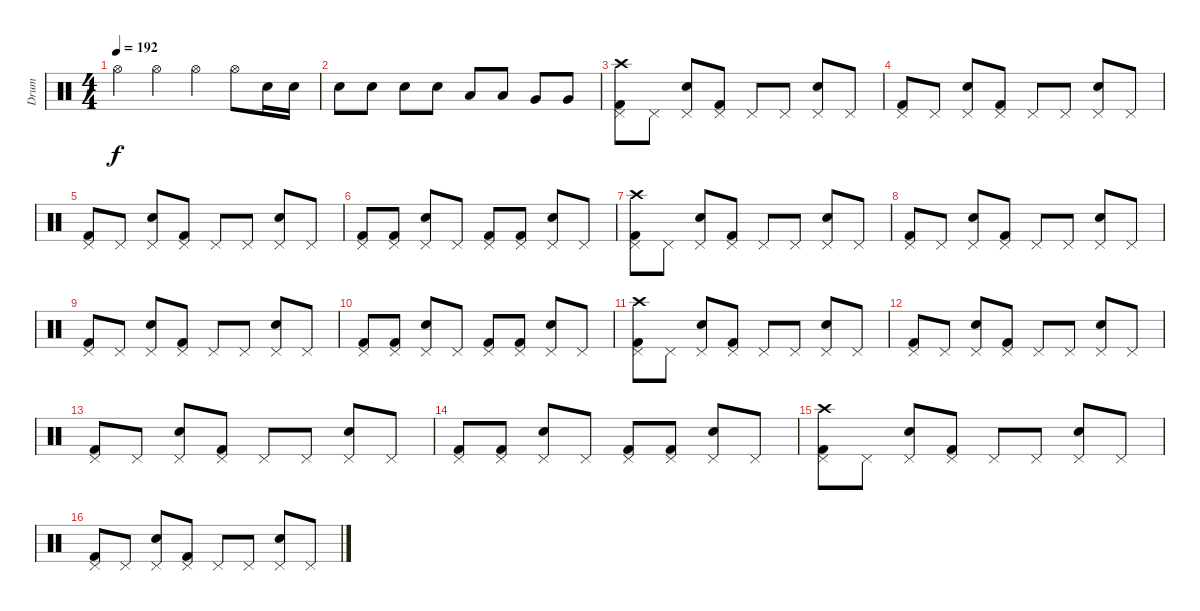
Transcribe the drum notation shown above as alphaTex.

\track ("Drum" "Drum") {instrument percussion}
\staff {score}
\articulation defaults
\ts (4 4)
\tempo 192
\clef neutral
\ks c "Hi-Hat (open)".4{dy f} "Hi-Hat (open)".4 "Hi-Hat (open)".4 "Hi-Hat (open)".8 "Electric Snare (hit)".16 "Electric Snare (hit)".16
|
"Electric Snare (hit)".8 "Electric Snare (hit)".8 "Electric Snare (hit)".8 "Electric Snare (hit)".8 "Low Tom (hit)".8 "Low Tom (hit)".8 "Very Low Tom (hit)".8 "Very Low Tom (hit)".8 |
("Crash high (hit)" "Kick (hit) 2" "Pedal Hi-Hat (hit)").8 "Pedal Hi-Hat (hit)".8 ("Electric Snare (hit)" "Pedal Hi-Hat (hit)").8 ("Kick (hit) 2" "Pedal Hi-Hat (hit)").8 "Pedal Hi-Hat (hit)".8 "Pedal Hi-Hat (hit)".8 ("Electric Snare (hit)" "Pedal Hi-Hat (hit)").8 "Pedal Hi-Hat (hit)".8 |
("Kick (hit) 2" "Pedal Hi-Hat (hit)").8 "Pedal Hi-Hat (hit)".8 ("Electric Snare (hit)" "Pedal Hi-Hat (hit)").8 ("Kick (hit) 2" "Pedal Hi-Hat (hit)").8 "Pedal Hi-Hat (hit)".8 "Pedal Hi-Hat (hit)".8 ("Electric Snare (hit)" "Pedal Hi-Hat (hit)").8 "Pedal Hi-Hat (hit)".8 |
("Kick (hit) 2" "Pedal Hi-Hat (hit)").8 "Pedal Hi-Hat (hit)".8 ("Electric Snare (hit)" "Pedal Hi-Hat (hit)").8 ("Kick (hit) 2" "Pedal Hi-Hat (hit)").8 "Pedal Hi-Hat (hit)".8 "Pedal Hi-Hat (hit)".8 ("Electric Snare (hit)" "Pedal Hi-Hat (hit)").8 "Pedal Hi-Hat (hit)".8 |
("Kick (hit) 2" "Pedal Hi-Hat (hit)").8 ("Kick (hit) 2" "Pedal Hi-Hat (hit)").8 ("Electric Snare (hit)" "Pedal Hi-Hat (hit)").8 "Pedal Hi-Hat (hit)".8 ("Kick (hit) 2" "Pedal Hi-Hat (hit)").8 ("Kick (hit) 2" "Pedal Hi-Hat (hit)").8 ("Electric Snare (hit)" "Pedal Hi-Hat (hit)").8 "Pedal Hi-Hat (hit)".8 |
("Crash high (hit)" "Kick (hit) 2" "Pedal Hi-Hat (hit)").8 "Pedal Hi-Hat (hit)".8 ("Electric Snare (hit)" "Pedal Hi-Hat (hit)").8 ("Kick (hit) 2" "Pedal Hi-Hat (hit)").8 "Pedal Hi-Hat (hit)".8 "Pedal Hi-Hat (hit)".8 ("Electric Snare (hit)" "Pedal Hi-Hat (hit)").8 "Pedal Hi-Hat (hit)".8 |
("Kick (hit) 2" "Pedal Hi-Hat (hit)").8 "Pedal Hi-Hat (hit)".8 ("Electric Snare (hit)" "Pedal Hi-Hat (hit)").8 ("Kick (hit) 2" "Pedal Hi-Hat (hit)").8 "Pedal Hi-Hat (hit)".8 "Pedal Hi-Hat (hit)".8 ("Electric Snare (hit)" "Pedal Hi-Hat (hit)").8 "Pedal Hi-Hat (hit)".8 |
("Kick (hit) 2" "Pedal Hi-Hat (hit)").8 "Pedal Hi-Hat (hit)".8 ("Electric Snare (hit)" "Pedal Hi-Hat (hit)").8 ("Kick (hit) 2" "Pedal Hi-Hat (hit)").8 "Pedal Hi-Hat (hit)".8 "Pedal Hi-Hat (hit)".8 ("Electric Snare (hit)" "Pedal Hi-Hat (hit)").8 "Pedal Hi-Hat (hit)".8 |
("Kick (hit) 2" "Pedal Hi-Hat (hit)").8 ("Kick (hit) 2" "Pedal Hi-Hat (hit)").8 ("Electric Snare (hit)" "Pedal Hi-Hat (hit)").8 "Pedal Hi-Hat (hit)".8 ("Kick (hit) 2" "Pedal Hi-Hat (hit)").8 ("Kick (hit) 2" "Pedal Hi-Hat (hit)").8 ("Electric Snare (hit)" "Pedal Hi-Hat (hit)").8 "Pedal Hi-Hat (hit)".8 |
("Crash high (hit)" "Kick (hit) 2" "Pedal Hi-Hat (hit)").8 "Pedal Hi-Hat (hit)".8 ("Electric Snare (hit)" "Pedal Hi-Hat (hit)").8 ("Kick (hit) 2" "Pedal Hi-Hat (hit)").8 "Pedal Hi-Hat (hit)".8 "Pedal Hi-Hat (hit)".8 ("Electric Snare (hit)" "Pedal Hi-Hat (hit)").8 "Pedal Hi-Hat (hit)".8 |
("Kick (hit) 2" "Pedal Hi-Hat (hit)").8 "Pedal Hi-Hat (hit)".8 ("Electric Snare (hit)" "Pedal Hi-Hat (hit)").8 ("Kick (hit) 2" "Pedal Hi-Hat (hit)").8 "Pedal Hi-Hat (hit)".8 "Pedal Hi-Hat (hit)".8 ("Electric Snare (hit)" "Pedal Hi-Hat (hit)").8 "Pedal Hi-Hat (hit)".8 |
("Kick (hit) 2" "Pedal Hi-Hat (hit)").8 "Pedal Hi-Hat (hit)".8 ("Electric Snare (hit)" "Pedal Hi-Hat (hit)").8 ("Kick (hit) 2" "Pedal Hi-Hat (hit)").8 "Pedal Hi-Hat (hit)".8 "Pedal Hi-Hat (hit)".8 ("Electric Snare (hit)" "Pedal Hi-Hat (hit)").8 "Pedal Hi-Hat (hit)".8 |
("Kick (hit) 2" "Pedal Hi-Hat (hit)").8 ("Kick (hit) 2" "Pedal Hi-Hat (hit)").8 ("Electric Snare (hit)" "Pedal Hi-Hat (hit)").8 "Pedal Hi-Hat (hit)".8 ("Kick (hit) 2" "Pedal Hi-Hat (hit)").8 ("Kick (hit) 2" "Pedal Hi-Hat (hit)").8 ("Electric Snare (hit)" "Pedal Hi-Hat (hit)").8 "Pedal Hi-Hat (hit)".8 |
("Crash high (hit)" "Kick (hit) 2" "Pedal Hi-Hat (hit)").8 "Pedal Hi-Hat (hit)".8 ("Electric Snare (hit)" "Pedal Hi-Hat (hit)").8 ("Kick (hit) 2" "Pedal Hi-Hat (hit)").8 "Pedal Hi-Hat (hit)".8 "Pedal Hi-Hat (hit)".8 ("Electric Snare (hit)" "Pedal Hi-Hat (hit)").8 "Pedal Hi-Hat (hit)".8 |
("Kick (hit) 2" "Pedal Hi-Hat (hit)").8 "Pedal Hi-Hat (hit)".8 ("Electric Snare (hit)" "Pedal Hi-Hat (hit)").8 ("Kick (hit) 2" "Pedal Hi-Hat (hit)").8 "Pedal Hi-Hat (hit)".8 "Pedal Hi-Hat (hit)".8 ("Electric Snare (hit)" "Pedal Hi-Hat (hit)").8 "Pedal Hi-Hat (hit)".8
